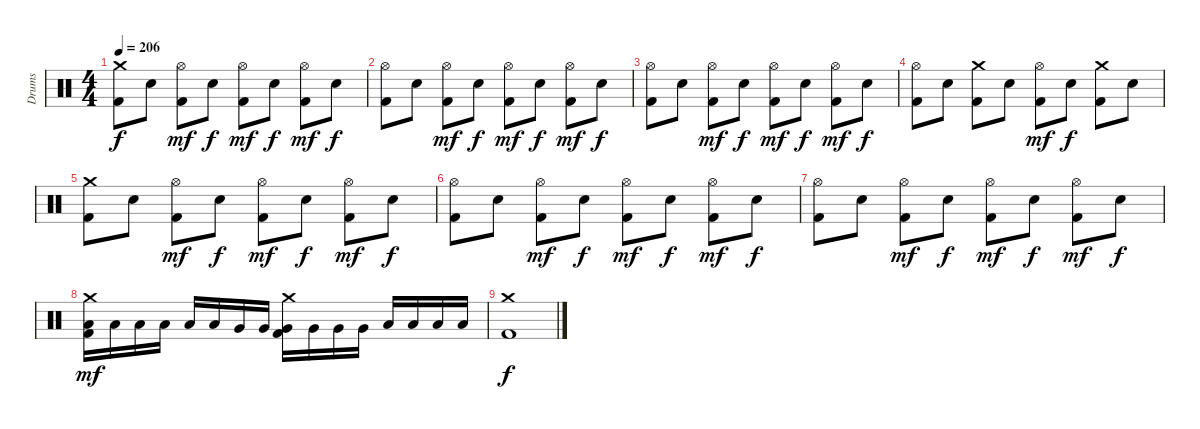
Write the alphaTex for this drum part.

\track ("Drums" "Drums") {instrument percussion}
\staff {score}
\articulation defaults
\ts (4 4)
\tempo 206
\clef neutral
\ks c
("Crash medium (hit)" "Kick (hit) 2").8{dy f} "Snare (hit) 2".8 ("Hi-Hat (open)" "Kick (hit) 2").8{dy mf} "Snare (hit) 2".8{dy f} ("Hi-Hat (open)" "Kick (hit) 2").8{dy mf} "Snare (hit) 2".8{dy f} ("Hi-Hat (open)" "Kick (hit) 2").8{dy mf} "Snare (hit) 2".8{dy f} |
("Hi-Hat (open)" "Kick (hit) 2").8 "Snare (hit) 2".8 ("Hi-Hat (open)" "Kick (hit) 2").8{dy mf} "Snare (hit) 2".8{dy f} ("Hi-Hat (open)" "Kick (hit) 2").8{dy mf} "Snare (hit) 2".8{dy f} ("Hi-Hat (open)" "Kick (hit) 2").8{dy mf} "Snare (hit) 2".8{dy f} |
("Hi-Hat (open)" "Kick (hit) 2").8 "Snare (hit) 2".8 ("Hi-Hat (open)" "Kick (hit) 2").8{dy mf} "Snare (hit) 2".8{dy f} ("Hi-Hat (open)" "Kick (hit) 2").8{dy mf} "Snare (hit) 2".8{dy f} ("Hi-Hat (open)" "Kick (hit) 2").8{dy mf} "Snare (hit) 2".8{dy f} |
("Hi-Hat (open)" "Kick (hit) 2").8 "Snare (hit) 2".8 ("Crash medium (hit)" "Kick (hit) 2").8 "Snare (hit) 2".8 ("Hi-Hat (open)" "Kick (hit) 2").8{dy mf} "Snare (hit) 2".8{dy f} ("Crash medium (hit)" "Kick (hit) 2").8 "Snare (hit) 2".8 |
("Crash medium (hit)" "Kick (hit) 2").8 "Snare (hit) 2".8 ("Hi-Hat (open)" "Kick (hit) 2").8{dy mf} "Snare (hit) 2".8{dy f} ("Hi-Hat (open)" "Kick (hit) 2").8{dy mf} "Snare (hit) 2".8{dy f} ("Hi-Hat (open)" "Kick (hit) 2").8{dy mf} "Snare (hit) 2".8{dy f} |
("Hi-Hat (open)" "Kick (hit) 2").8 "Snare (hit) 2".8 ("Hi-Hat (open)" "Kick (hit) 2").8{dy mf} "Snare (hit) 2".8{dy f} ("Hi-Hat (open)" "Kick (hit) 2").8{dy mf} "Snare (hit) 2".8{dy f} ("Hi-Hat (open)" "Kick (hit) 2").8{dy mf} "Snare (hit) 2".8{dy f} |
("Hi-Hat (open)" "Kick (hit) 2").8 "Snare (hit) 2".8 ("Hi-Hat (open)" "Kick (hit) 2").8{dy mf} "Snare (hit) 2".8{dy f} ("Hi-Hat (open)" "Kick (hit) 2").8{dy mf} "Snare (hit) 2".8{dy f} ("Hi-Hat (open)" "Kick (hit) 2").8{dy mf} "Snare (hit) 2".8{dy f} |
("Crash medium (hit)" "Low Tom (hit)" "Kick (hit) 2").16{dy mf} "Low Tom (hit)".16 "Low Tom (hit)".16 "Low Tom (hit)".16 "Low Tom (hit)".16 "Low Tom (hit)".16 "Very Low Tom (hit)".16 "Very Low Tom (hit)".16 ("Crash medium (hit)" "Very Low Tom (hit)" "Kick (hit) 2").16 "Very Low Tom (hit)".16 "Very Low Tom (hit)".16 "Very Low Tom (hit)".16 "Low Floor Tom (hit)".16 "Low Floor Tom (hit)".16 "Low Floor Tom (hit)".16 "Low Floor Tom (hit)".16 |
("Crash medium (hit)" "Kick (hit) 2").1{dy f}
